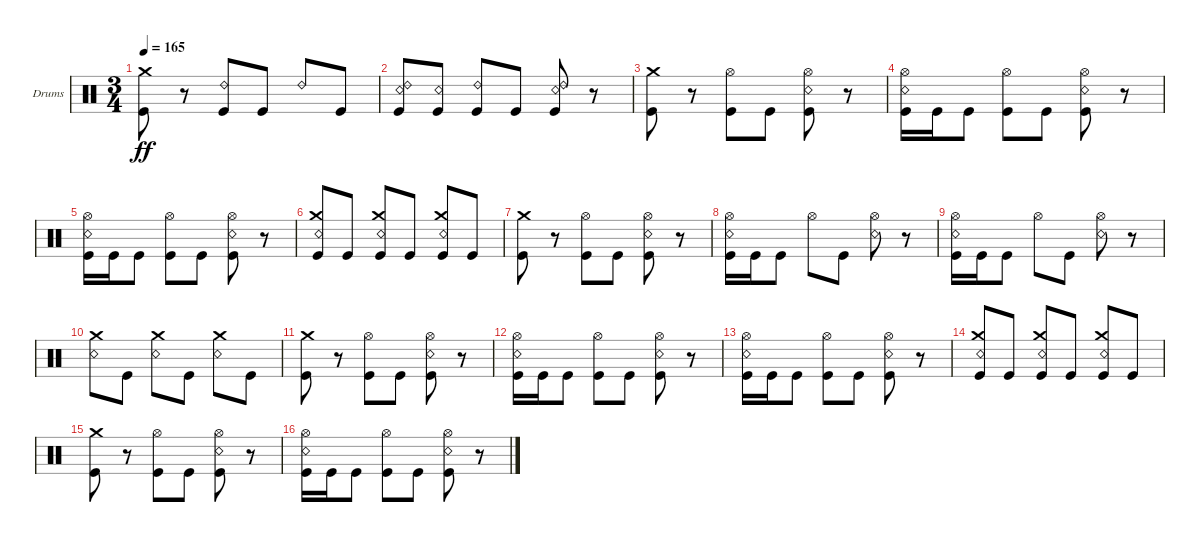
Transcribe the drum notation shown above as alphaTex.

\bracketExtendMode groupsimilarinstruments
\firstSystemTrackNameOrientation horizontal
\otherSystemsTrackNameOrientation horizontal
\track ("Kaleb - Drums" "Drums") {instrument percussion}
\staff {score}
\articulation defaults
\ts (3 4)
\tempo 165
\clef neutral
\ks c
("Kick (hit)" "Crash medium (hit)").8{dy ff} r.8 ("Kick (hit)" "Ride (bell) 2").8 "Kick (hit)".8 "Ride (bell) 2".8 "Kick (hit)".8 |
("Kick (hit)" "Ride (bell) 2" "Snare (rim shot)").8 ("Kick (hit)" "Snare (rim shot)").8 ("Kick (hit)" "Ride (bell) 2").8 "Kick (hit)".8 ("Kick (hit)" "Ride (bell) 2" "Snare (rim shot)").8 r.8 |
("Kick (hit)" "Crash medium (hit)").8 r.8 ("Kick (hit)" "Hi-Hat (open)").8 "Kick (hit)".8 ("Kick (hit)" "Hi-Hat (open)" "Snare (rim shot)").8 r.8 |
("Kick (hit)" "Hi-Hat (open)" "Snare (rim shot)").16 "Kick (hit)".16 "Kick (hit)".8 ("Kick (hit)" "Hi-Hat (open)").8 "Kick (hit)".8 ("Kick (hit)" "Hi-Hat (open)" "Snare (rim shot)").8 r.8 |
("Kick (hit)" "Hi-Hat (open)" "Snare (rim shot)").16 "Kick (hit)".16 "Kick (hit)".8 ("Kick (hit)" "Hi-Hat (open)").8 "Kick (hit)".8 ("Kick (hit)" "Hi-Hat (open)" "Snare (rim shot)").8 r.8 |
("Kick (hit)" "Crash medium (hit)" "Snare (rim shot)").8 "Kick (hit)".8 ("Kick (hit)" "Crash medium (hit)" "Snare (rim shot)").8 "Kick (hit)".8 ("Kick (hit)" "Crash medium (hit)" "Snare (rim shot)").8 "Kick (hit)".8 |
("Kick (hit)" "Crash medium (hit)").8 r.8 ("Kick (hit)" "Hi-Hat (open)").8 "Kick (hit)".8 ("Kick (hit)" "Hi-Hat (open)" "Snare (rim shot)").8 r.8 |
("Kick (hit)" "Hi-Hat (open)" "Snare (rim shot)").16 "Kick (hit)".16 "Kick (hit)".8 "Hi-Hat (open)".8 "Kick (hit)".8 ("Hi-Hat (open)" "Snare (rim shot)").8 r.8 |
("Kick (hit)" "Hi-Hat (open)" "Snare (rim shot)").16 "Kick (hit)".16 "Kick (hit)".8 "Hi-Hat (open)".8 "Kick (hit)".8 ("Hi-Hat (open)" "Snare (rim shot)").8 r.8 |
("Crash medium (hit)" "Snare (rim shot)").8 "Kick (hit)".8 ("Crash medium (hit)" "Snare (rim shot)").8 "Kick (hit)".8 ("Crash medium (hit)" "Snare (rim shot)").8 "Kick (hit)".8 |
("Kick (hit)" "Crash medium (hit)").8 r.8 ("Kick (hit)" "Hi-Hat (open)").8 "Kick (hit)".8 ("Kick (hit)" "Hi-Hat (open)" "Snare (rim shot)").8 r.8 |
("Kick (hit)" "Hi-Hat (open)" "Snare (rim shot)").16 "Kick (hit)".16 "Kick (hit)".8 ("Kick (hit)" "Hi-Hat (open)").8 "Kick (hit)".8 ("Kick (hit)" "Hi-Hat (open)" "Snare (rim shot)").8 r.8 |
("Kick (hit)" "Hi-Hat (open)" "Snare (rim shot)").16 "Kick (hit)".16 "Kick (hit)".8 ("Kick (hit)" "Hi-Hat (open)").8 "Kick (hit)".8 ("Kick (hit)" "Hi-Hat (open)" "Snare (rim shot)").8 r.8 |
("Kick (hit)" "Crash medium (hit)" "Snare (rim shot)").8 "Kick (hit)".8 ("Kick (hit)" "Crash medium (hit)" "Snare (rim shot)").8 "Kick (hit)".8 ("Kick (hit)" "Crash medium (hit)" "Snare (rim shot)").8 "Kick (hit)".8 |
("Kick (hit)" "Crash medium (hit)").8 r.8 ("Kick (hit)" "Hi-Hat (open)").8 "Kick (hit)".8 ("Kick (hit)" "Hi-Hat (open)" "Snare (rim shot)").8 r.8 |
("Kick (hit)" "Hi-Hat (open)" "Snare (rim shot)").16 "Kick (hit)".16 "Kick (hit)".8 ("Kick (hit)" "Hi-Hat (open)").8 "Kick (hit)".8 ("Kick (hit)" "Hi-Hat (open)" "Snare (rim shot)").8 r.8
